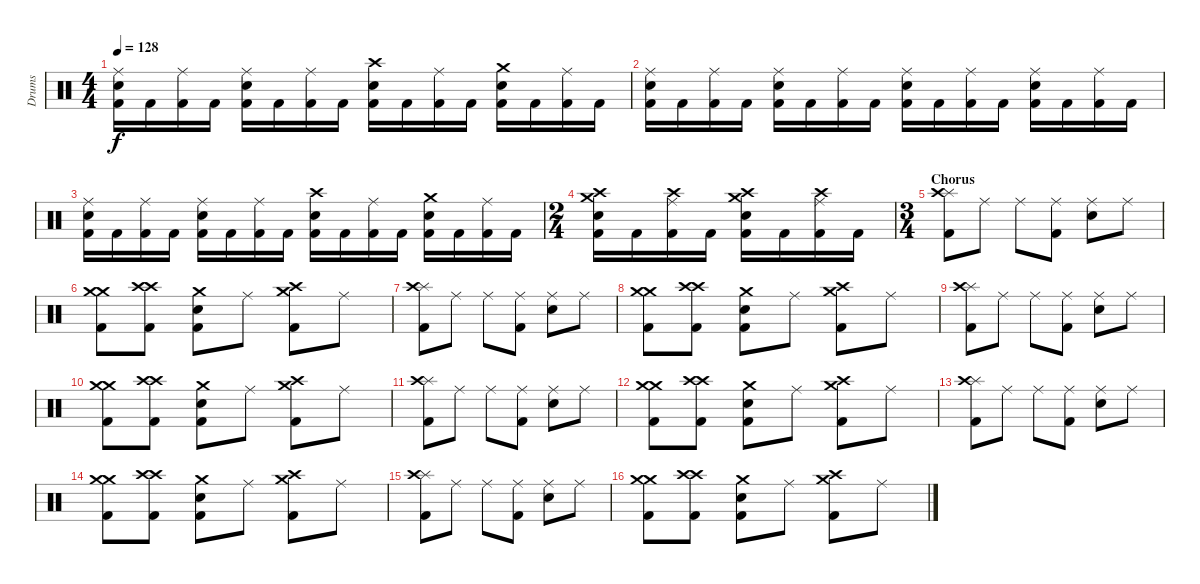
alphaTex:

\track ("Drums" "Drums") {instrument percussion}
\staff {score}
\articulation defaults
\ts (4 4)
\tempo 128
\clef neutral
\ks c
("Ride (middle)" "Snare (hit) 2" "Kick (hit) 2").16{dy f} "Kick (hit) 2".16 ("Ride (middle)" "Kick (hit) 2").16 "Kick (hit) 2".16 ("Ride (middle)" "Snare (hit) 2" "Kick (hit) 2").16 "Kick (hit) 2".16 ("Ride (middle)" "Kick (hit) 2").16 "Kick (hit) 2".16 ("Crash high (hit)" "Snare (hit) 2" "Kick (hit) 2").16 "Kick (hit) 2".16 ("Ride (middle)" "Kick (hit) 2").16 "Kick (hit) 2".16 ("Crash medium (hit)" "Snare (hit) 2" "Kick (hit) 2").16 "Kick (hit) 2".16 ("Ride (middle)" "Kick (hit) 2").16 "Kick (hit) 2".16 |
("Ride (middle)" "Snare (hit) 2" "Kick (hit) 2").16 "Kick (hit) 2".16 ("Ride (middle)" "Kick (hit) 2").16 "Kick (hit) 2".16 ("Ride (middle)" "Snare (hit) 2" "Kick (hit) 2").16 "Kick (hit) 2".16 ("Ride (middle)" "Kick (hit) 2").16 "Kick (hit) 2".16 ("Ride (middle)" "Snare (hit) 2" "Kick (hit) 2").16 "Kick (hit) 2".16 ("Ride (middle)" "Kick (hit) 2").16 "Kick (hit) 2".16 ("Ride (middle)" "Snare (hit) 2" "Kick (hit) 2").16 "Kick (hit) 2".16 ("Ride (middle)" "Kick (hit) 2").16 "Kick (hit) 2".16 |
("Ride (middle)" "Snare (hit) 2" "Kick (hit) 2").16 "Kick (hit) 2".16 ("Ride (middle)" "Kick (hit) 2").16 "Kick (hit) 2".16 ("Ride (middle)" "Snare (hit) 2" "Kick (hit) 2").16 "Kick (hit) 2".16 ("Ride (middle)" "Kick (hit) 2").16 "Kick (hit) 2".16 ("Crash high (hit)" "Snare (hit) 2" "Kick (hit) 2").16 "Kick (hit) 2".16 ("Ride (middle)" "Kick (hit) 2").16 "Kick (hit) 2".16 ("Crash medium (hit)" "Snare (hit) 2" "Kick (hit) 2").16 "Kick (hit) 2".16 ("Ride (middle)" "Kick (hit) 2").16 "Kick (hit) 2".16 |
\ts (2 4)
("Crash high (hit)" "Crash medium (hit)" "Snare (hit) 2" "Kick (hit) 2").16 "Kick (hit) 2".16 ("Ride (middle)" "Crash high (hit)" "Kick (hit) 2").16 "Kick (hit) 2".16 ("Crash medium (hit)" "Crash high (hit)" "Snare (hit) 2" "Kick (hit) 2").16 "Kick (hit) 2".16 ("Ride (middle)" "Crash high (hit)" "Kick (hit) 2").16 "Kick (hit) 2".16 |
\ts (3 4)
\section ("" "Chorus")
("Splash (hit)" "Crash high (hit)" "Kick (hit) 2").8 "Ride (middle)".8 "Ride (middle)".8 ("Ride (middle)" "Kick (hit) 2").8 ("Ride (middle)" "Snare (hit) 2").8 "Ride (middle)".8 |
("Crash medium (hit)" "Crash medium (hit)" "Kick (hit) 2").8 ("Crash high (hit)" "Crash high (hit)" "Kick (hit) 2").8 ("Crash medium (hit)" "Snare (hit) 2" "Kick (hit) 2").8 "Ride (middle)".8 ("Crash medium (hit)" "Crash high (hit)" "Kick (hit) 2").8 "Ride (middle)".8 |
("Splash (hit)" "Crash high (hit)" "Kick (hit) 2").8 "Ride (middle)".8 "Ride (middle)".8 ("Ride (middle)" "Kick (hit) 2").8 ("Ride (middle)" "Snare (hit) 2").8 "Ride (middle)".8 |
("Crash medium (hit)" "Crash medium (hit)" "Kick (hit) 2").8 ("Crash high (hit)" "Crash high (hit)" "Kick (hit) 2").8 ("Crash medium (hit)" "Snare (hit) 2" "Kick (hit) 2").8 "Ride (middle)".8 ("Crash medium (hit)" "Crash high (hit)" "Kick (hit) 2").8 "Ride (middle)".8 |
("Splash (hit)" "Crash high (hit)" "Kick (hit) 2").8 "Ride (middle)".8 "Ride (middle)".8 ("Ride (middle)" "Kick (hit) 2").8 ("Ride (middle)" "Snare (hit) 2").8 "Ride (middle)".8 |
("Crash medium (hit)" "Crash medium (hit)" "Kick (hit) 2").8 ("Crash high (hit)" "Crash high (hit)" "Kick (hit) 2").8 ("Crash medium (hit)" "Snare (hit) 2" "Kick (hit) 2").8 "Ride (middle)".8 ("Crash medium (hit)" "Crash high (hit)" "Kick (hit) 2").8 "Ride (middle)".8 |
("Splash (hit)" "Crash high (hit)" "Kick (hit) 2").8 "Ride (middle)".8 "Ride (middle)".8 ("Ride (middle)" "Kick (hit) 2").8 ("Ride (middle)" "Snare (hit) 2").8 "Ride (middle)".8 |
("Crash medium (hit)" "Crash medium (hit)" "Kick (hit) 2").8 ("Crash high (hit)" "Crash high (hit)" "Kick (hit) 2").8 ("Crash medium (hit)" "Snare (hit) 2" "Kick (hit) 2").8 "Ride (middle)".8 ("Crash medium (hit)" "Crash high (hit)" "Kick (hit) 2").8 "Ride (middle)".8 |
("Splash (hit)" "Crash high (hit)" "Kick (hit) 2").8 "Ride (middle)".8 "Ride (middle)".8 ("Ride (middle)" "Kick (hit) 2").8 ("Ride (middle)" "Snare (hit) 2").8 "Ride (middle)".8 |
("Crash medium (hit)" "Crash medium (hit)" "Kick (hit) 2").8 ("Crash high (hit)" "Crash high (hit)" "Kick (hit) 2").8 ("Crash medium (hit)" "Snare (hit) 2" "Kick (hit) 2").8 "Ride (middle)".8 ("Crash medium (hit)" "Crash high (hit)" "Kick (hit) 2").8 "Ride (middle)".8 |
("Splash (hit)" "Crash high (hit)" "Kick (hit) 2").8 "Ride (middle)".8 "Ride (middle)".8 ("Ride (middle)" "Kick (hit) 2").8 ("Ride (middle)" "Snare (hit) 2").8 "Ride (middle)".8 |
("Crash medium (hit)" "Crash medium (hit)" "Kick (hit) 2").8 ("Crash high (hit)" "Crash high (hit)" "Kick (hit) 2").8 ("Crash medium (hit)" "Snare (hit) 2" "Kick (hit) 2").8 "Ride (middle)".8 ("Crash medium (hit)" "Crash high (hit)" "Kick (hit) 2").8 "Ride (middle)".8
